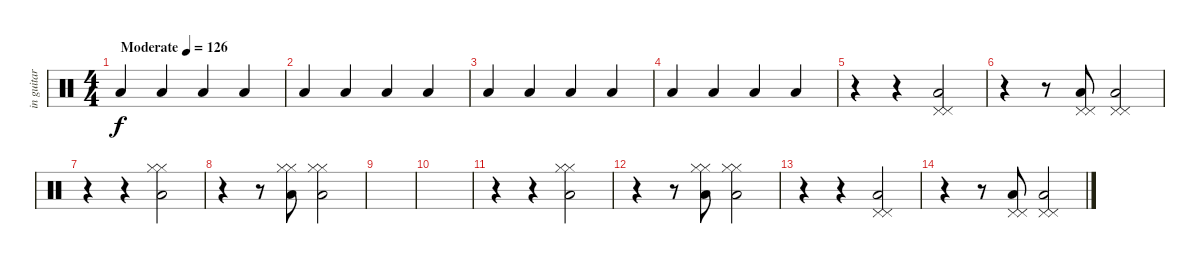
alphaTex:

\track ("in guitar" "in guitar") {instrument percussion}
\staff {score}
\articulation defaults
\ts (4 4)
\tempo (126 "Moderate")
\clef neutral
\ks c "Low Tom (hit)".4{dy f} "Low Tom (hit)".4 "Low Tom (hit)".4 "Low Tom (hit)".4
|
"Low Tom (hit)".4 "Low Tom (hit)".4 "Low Tom (hit)".4 "Low Tom (hit)".4 |
"Low Tom (hit)".4 "Low Tom (hit)".4 "Low Tom (hit)".4 "Low Tom (hit)".4 |
"Low Tom (hit)".4 "Low Tom (hit)".4 "Low Tom (hit)".4 "Low Tom (hit)".4 |
r.4 r.4 ("Pedal Hi-Hat (hit)" "Low Floor Tom (hit)" "Pedal Hi-Hat (hit)").2 |
r.4 r.8 ("Pedal Hi-Hat (hit)" "Low Floor Tom (hit)" "Pedal Hi-Hat (hit)").8 ("Pedal Hi-Hat (hit)" "Low Floor Tom (hit)" "Pedal Hi-Hat (hit)").2 |
r.4 r.4 ("Hi-Hat (closed)" "Low Floor Tom (hit)" "Hi-Hat (closed)").2 |
r.4 r.8 ("Hi-Hat (closed)" "Low Floor Tom (hit)" "Hi-Hat (closed)").8 ("Hi-Hat (closed)" "Low Floor Tom (hit)" "Hi-Hat (closed)").2 |
|
|
r.4 r.4 ("Hi-Hat (closed)" "Low Floor Tom (hit)" "Hi-Hat (closed)").2 |
r.4 r.8 ("Hi-Hat (closed)" "Low Floor Tom (hit)" "Hi-Hat (closed)").8 ("Hi-Hat (closed)" "Low Floor Tom (hit)" "Hi-Hat (closed)").2 |
r.4 r.4 ("Pedal Hi-Hat (hit)" "Low Floor Tom (hit)" "Pedal Hi-Hat (hit)").2 |
r.4 r.8 ("Pedal Hi-Hat (hit)" "Low Floor Tom (hit)" "Pedal Hi-Hat (hit)").8 ("Pedal Hi-Hat (hit)" "Low Floor Tom (hit)" "Pedal Hi-Hat (hit)").2
